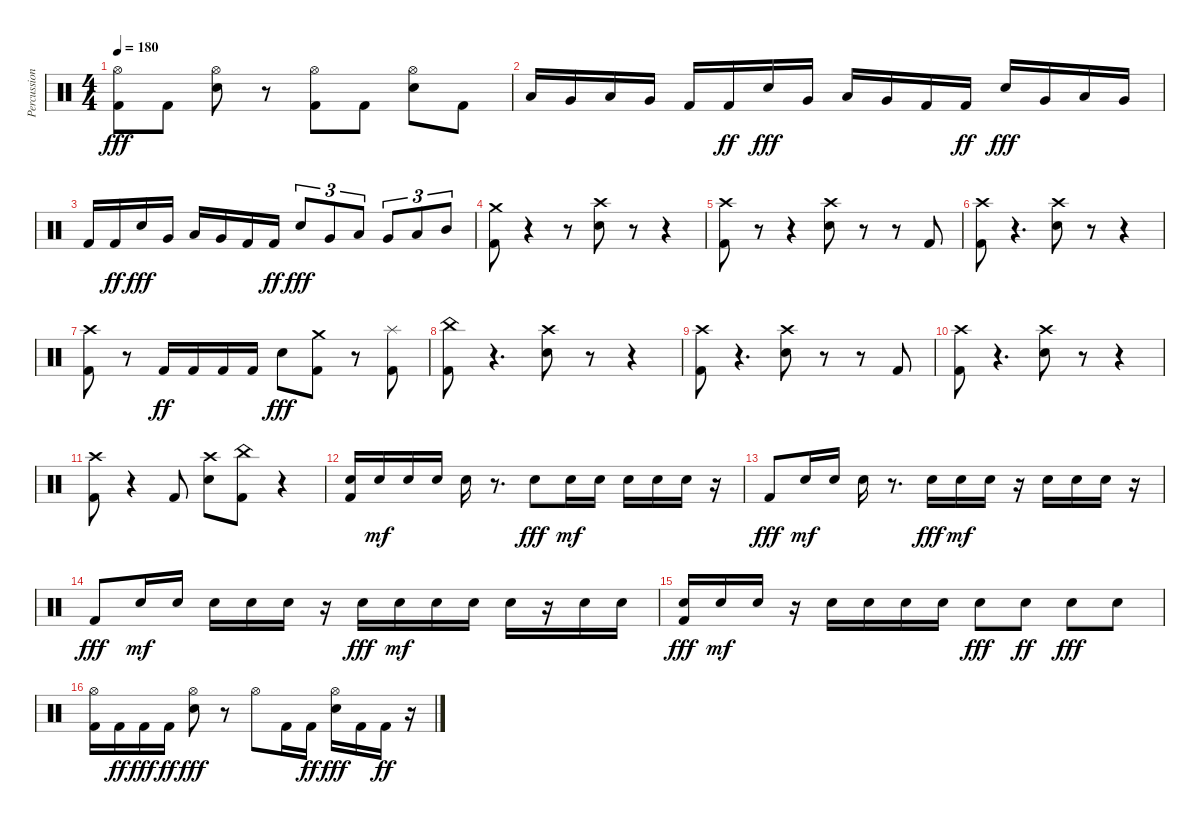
\track ("Percussion" "Percussion") {instrument percussion}
\staff {score}
\articulation defaults
\ts (4 4)
\tempo 180
\clef neutral
\ks c
("Hi-Hat (open)" "Kick (hit) 2").8{dy fff} "Kick (hit) 2".8 ("Hi-Hat (open)" "Snare (hit) 2").8 r.8 ("Hi-Hat (open)" "Kick (hit) 2").8 "Kick (hit) 2".8 ("Hi-Hat (open)" "Snare (hit) 2").8 "Kick (hit) 2".8 |
"Low Tom (hit)".16 "Very Low Tom (hit)".16 "Low Tom (hit)".16 "Very Low Tom (hit)".16 "Kick (hit) 2".16 "Kick (hit) 2".16{dy ff} "Snare (hit) 2".16{dy fff} "Very Low Tom (hit)".16 "Low Tom (hit)".16 "Very Low Tom (hit)".16 "Kick (hit) 2".16 "Kick (hit) 2".16{dy ff} "Snare (hit) 2".16{dy fff} "Very Low Tom (hit)".16 "Low Tom (hit)".16 "Very Low Tom (hit)".16 |
"Kick (hit) 2".16 "Kick (hit) 2".16{dy ff} "Snare (hit) 2".16{dy fff} "Very Low Tom (hit)".16 "Low Tom (hit)".16 "Very Low Tom (hit)".16 "Kick (hit) 2".16 "Kick (hit) 2".16{dy ff} "Snare (hit) 2".8{tu (3 2) dy fff} "Very Low Tom (hit)".8{tu (3 2)} "Low Tom (hit)".8{tu (3 2)} "Very Low Tom (hit)".8{tu (3 2)} "Low Tom (hit)".8{tu (3 2)} "Mid Tom (hit)".8{tu (3 2)} |
("Kick (hit) 2" "Crash medium (hit)").8 r.4 r.8 ("Snare (hit) 2" "Crash high (hit)").8 r.8 r.4 |
("Kick (hit) 2" "Crash high (hit)").8 r.8 r.4 ("Snare (hit) 2" "Crash high (hit)").8 r.8 r.8 "Kick (hit) 2".8 |
("Kick (hit) 2" "Crash high (hit)").8 r.4{d} ("Snare (hit) 2" "Crash high (hit)").8 r.8 r.4 |
("Kick (hit) 2" "Crash high (hit)").8 r.8 "Kick (hit) 2".16{dy ff} "Kick (hit) 2".16 "Kick (hit) 2".16 "Kick (hit) 2".16 "Snare (hit) 2".8{dy fff} ("Kick (hit) 2" "Crash medium (hit)").8 r.8 ("Kick (hit) 2" "Splash (hit)").8 |
("Kick (hit) 2" "China (hit)").8 r.4{d} ("Snare (hit) 2" "Crash high (hit)").8 r.8 r.4 |
("Kick (hit) 2" "Crash high (hit)").8 r.4{d} ("Snare (hit) 2" "Crash high (hit)").8 r.8 r.8 "Kick (hit) 2".8 |
("Kick (hit) 2" "Crash high (hit)").8 r.4{d} ("Snare (hit) 2" "Crash high (hit)").8 r.8 r.4 |
("Kick (hit) 2" "Crash high (hit)").8 r.4 "Kick (hit) 2".8 ("Snare (hit) 2" "Crash high (hit)").8 ("Kick (hit) 2" "China (hit)").8 r.4 |
("Electric Snare (hit)" "Kick (hit) 2").16 "Electric Snare (hit)".16{dy mf} "Electric Snare (hit)".16 "Electric Snare (hit)".16 "Electric Snare (hit)".16 r.8{d} "Snare (hit) 2".8{dy fff} "Electric Snare (hit)".16{dy mf} "Electric Snare (hit)".16 "Electric Snare (hit)".16 "Electric Snare (hit)".16 "Electric Snare (hit)".16 r.16 |
"Kick (hit) 2".8{dy fff} "Electric Snare (hit)".16{dy mf} "Electric Snare (hit)".16 "Electric Snare (hit)".16 r.8{d} "Snare (hit) 2".16{dy fff} "Electric Snare (hit)".16{dy mf} "Electric Snare (hit)".16 r.16 "Electric Snare (hit)".16 "Electric Snare (hit)".16 "Electric Snare (hit)".16 r.16 |
"Kick (hit) 2".8{dy fff} "Electric Snare (hit)".16{dy mf} "Electric Snare (hit)".16 "Electric Snare (hit)".16 "Electric Snare (hit)".16 "Electric Snare (hit)".16 r.16 "Snare (hit) 2".16{dy fff} "Electric Snare (hit)".16{dy mf} "Electric Snare (hit)".16 "Electric Snare (hit)".16 "Electric Snare (hit)".16 r.16 "Electric Snare (hit)".16 "Electric Snare (hit)".16 |
("Electric Snare (hit)" "Kick (hit) 2").16{dy fff} "Electric Snare (hit)".16{dy mf} "Electric Snare (hit)".16 r.16 "Electric Snare (hit)".16 "Electric Snare (hit)".16 "Electric Snare (hit)".16 "Electric Snare (hit)".16 "Snare (hit) 2".8{dy fff} "Electric Snare (hit)".8{dy ff} "Snare (hit) 2".8{dy fff} "Snare (hit) 2".8 |
("Kick (hit) 2" "Hi-Hat (open)").16 "Kick (hit) 2".16{dy ff} "Kick (hit) 2".16{dy fff} "Kick (hit) 2".16{dy ff} ("Snare (hit) 2" "Hi-Hat (open)").8{dy fff} r.8 "Hi-Hat (open)".8 "Kick (hit) 2".16 "Kick (hit) 2".16{dy ff} ("Snare (hit) 2" "Hi-Hat (open)").16{dy fff} "Kick (hit) 2".16 "Kick (hit) 2".16{dy ff} r.16
